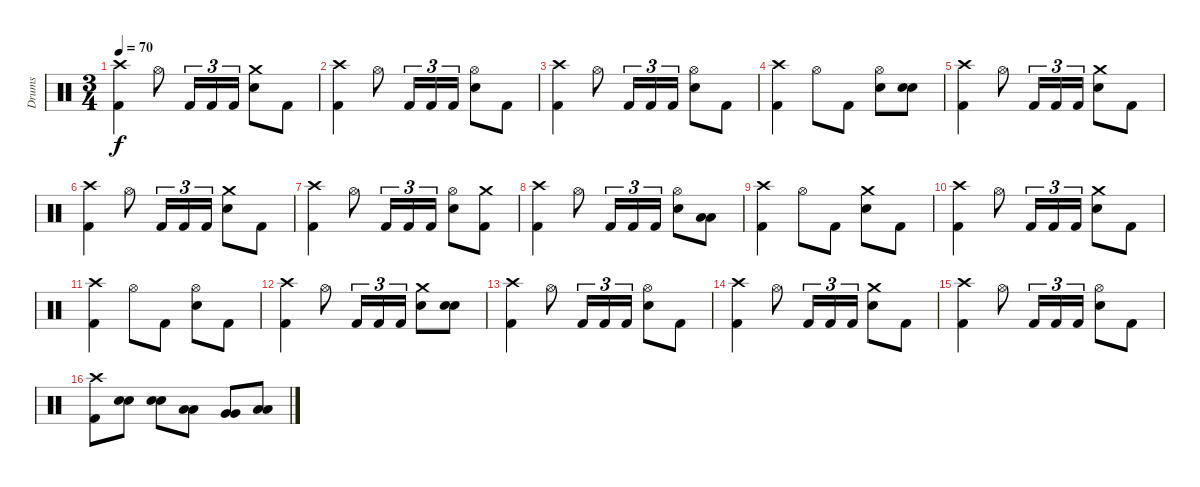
\track ("Drums" "Drums") {instrument percussion}
\staff {score}
\articulation defaults
\ts (3 4)
\tempo 70
\clef neutral
\ks c
("Crash high (hit)" "Kick (hit) 2").4{dy f} "Hi-Hat (open)".8 "Kick (hit) 2".16{tu (3 2)} "Kick (hit) 2".16{tu (3 2)} "Kick (hit) 2".16{tu (3 2)} ("Crash medium (hit)" "Electric Snare (hit)").8 "Kick (hit) 2".8 |
("Crash high (hit)" "Kick (hit) 2").4 "Hi-Hat (open)".8 "Kick (hit) 2".16{tu (3 2)} "Kick (hit) 2".16{tu (3 2)} "Kick (hit) 2".16{tu (3 2)} ("Hi-Hat (open)" "Electric Snare (hit)").8 "Kick (hit) 2".8 |
("Crash high (hit)" "Kick (hit) 2").4 "Hi-Hat (open)".8 "Kick (hit) 2".16{tu (3 2)} "Kick (hit) 2".16{tu (3 2)} "Kick (hit) 2".16{tu (3 2)} ("Hi-Hat (open)" "Electric Snare (hit)").8 "Kick (hit) 2".8 |
("Crash high (hit)" "Kick (hit) 2").4 "Hi-Hat (open)".8 "Kick (hit) 2".8 ("Hi-Hat (open)" "Electric Snare (hit)").8 ("Electric Snare (hit)" "Electric Snare (hit)").8{bu 60} |
("Crash high (hit)" "Kick (hit) 2").4 "Hi-Hat (open)".8 "Kick (hit) 2".16{tu (3 2)} "Kick (hit) 2".16{tu (3 2)} "Kick (hit) 2".16{tu (3 2)} ("Crash medium (hit)" "Electric Snare (hit)").8 "Kick (hit) 2".8 |
("Crash high (hit)" "Kick (hit) 2").4 "Hi-Hat (open)".8 "Kick (hit) 2".16{tu (3 2)} "Kick (hit) 2".16{tu (3 2)} "Kick (hit) 2".16{tu (3 2)} ("Crash medium (hit)" "Electric Snare (hit)").8 "Kick (hit) 2".8 |
("Crash high (hit)" "Kick (hit) 2").4 "Hi-Hat (open)".8 "Kick (hit) 2".16{tu (3 2)} "Kick (hit) 2".16{tu (3 2)} "Kick (hit) 2".16{tu (3 2)} ("Hi-Hat (open)" "Electric Snare (hit)").8 ("Crash medium (hit)" "Kick (hit) 2").8 |
("Crash high (hit)" "Kick (hit) 2").4 "Hi-Hat (open)".8 "Kick (hit) 2".16{tu (3 2)} "Kick (hit) 2".16{tu (3 2)} "Kick (hit) 2".16{tu (3 2)} ("Hi-Hat (open)" "Electric Snare (hit)").8 ("Low Tom (hit)" "Low Tom (hit)").8{bu 60} |
("Crash high (hit)" "Kick (hit) 2").4 "Hi-Hat (open)".8 "Kick (hit) 2".8 ("Crash medium (hit)" "Electric Snare (hit)").8 "Kick (hit) 2".8 |
("Crash high (hit)" "Kick (hit) 2").4 "Hi-Hat (open)".8 "Kick (hit) 2".16{tu (3 2)} "Kick (hit) 2".16{tu (3 2)} "Kick (hit) 2".16{tu (3 2)} ("Crash medium (hit)" "Electric Snare (hit)").8 "Kick (hit) 2".8 |
("Crash high (hit)" "Kick (hit) 2").4 "Hi-Hat (open)".8 "Kick (hit) 2".8 ("Hi-Hat (open)" "Electric Snare (hit)").8 "Kick (hit) 2".8 |
("Crash high (hit)" "Kick (hit) 2").4 "Hi-Hat (open)".8 "Kick (hit) 2".16{tu (3 2)} "Kick (hit) 2".16{tu (3 2)} "Kick (hit) 2".16{tu (3 2)} ("Crash medium (hit)" "Electric Snare (hit)").8 ("Electric Snare (hit)" "Electric Snare (hit)").8{bu 60} |
("Crash high (hit)" "Kick (hit) 2").4 "Hi-Hat (open)".8 "Kick (hit) 2".16{tu (3 2)} "Kick (hit) 2".16{tu (3 2)} "Kick (hit) 2".16{tu (3 2)} ("Hi-Hat (open)" "Electric Snare (hit)").8 "Kick (hit) 2".8 |
("Crash high (hit)" "Kick (hit) 2").4 "Hi-Hat (open)".8 "Kick (hit) 2".16{tu (3 2)} "Kick (hit) 2".16{tu (3 2)} "Kick (hit) 2".16{tu (3 2)} ("Crash medium (hit)" "Electric Snare (hit)").8 "Kick (hit) 2".8 |
("Crash high (hit)" "Kick (hit) 2").4 "Hi-Hat (open)".8 "Kick (hit) 2".16{tu (3 2)} "Kick (hit) 2".16{tu (3 2)} "Kick (hit) 2".16{tu (3 2)} ("Hi-Hat (open)" "Electric Snare (hit)").8 "Kick (hit) 2".8 |
("Crash high (hit)" "Kick (hit) 2").8 ("Electric Snare (hit)" "Electric Snare (hit)").8{bu 60} ("Electric Snare (hit)" "Electric Snare (hit)").8{bu 60} ("Low Tom (hit)" "Low Tom (hit)").8{bu 60} ("Very Low Tom (hit)" "Very Low Tom (hit)").8{bu 60} ("Low Floor Tom (hit)" "Low Floor Tom (hit)").8{bu 60}
